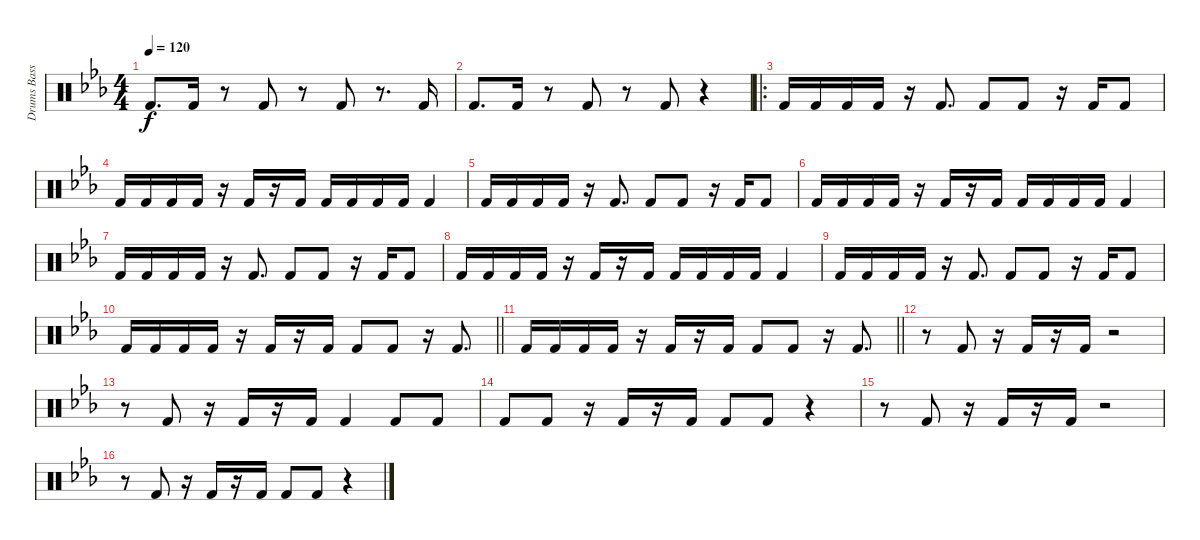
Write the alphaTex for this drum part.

\track ("Drums Bass" "Drums Bass") {instrument percussion}
\staff {score}
\articulation defaults
\ts (4 4)
\tempo 120
\clef neutral
\ks eb "Kick (hit) 2".8{d dy f} "Kick (hit) 2".16
r.8 "Kick (hit) 2".8 r.8 "Kick (hit) 2".8 r.8{d} "Kick (hit) 2".16 |
"Kick (hit) 2".8{d} "Kick (hit) 2".16 r.8 "Kick (hit) 2".8 r.8 "Kick (hit) 2".8 r.4 |
\ro "Kick (hit) 2".16 "Kick (hit) 2".16 "Kick (hit) 2".16 "Kick (hit) 2".16
r.16 "Kick (hit) 2".8{d} "Kick (hit) 2".8 "Kick (hit) 2".8 r.16 "Kick (hit) 2".16 "Kick (hit) 2".8 |
"Kick (hit) 2".16 "Kick (hit) 2".16 "Kick (hit) 2".16 "Kick (hit) 2".16 r.16 "Kick (hit) 2".16 r.16 "Kick (hit) 2".16 "Kick (hit) 2".16 "Kick (hit) 2".16 "Kick (hit) 2".16 "Kick (hit) 2".16 "Kick (hit) 2".4 |
"Kick (hit) 2".16 "Kick (hit) 2".16 "Kick (hit) 2".16 "Kick (hit) 2".16 r.16 "Kick (hit) 2".8{d} "Kick (hit) 2".8 "Kick (hit) 2".8 r.16 "Kick (hit) 2".16 "Kick (hit) 2".8 |
"Kick (hit) 2".16 "Kick (hit) 2".16 "Kick (hit) 2".16 "Kick (hit) 2".16 r.16 "Kick (hit) 2".16 r.16 "Kick (hit) 2".16 "Kick (hit) 2".16 "Kick (hit) 2".16 "Kick (hit) 2".16 "Kick (hit) 2".16 "Kick (hit) 2".4 |
"Kick (hit) 2".16 "Kick (hit) 2".16 "Kick (hit) 2".16 "Kick (hit) 2".16 r.16 "Kick (hit) 2".8{d} "Kick (hit) 2".8 "Kick (hit) 2".8 r.16 "Kick (hit) 2".16 "Kick (hit) 2".8 |
"Kick (hit) 2".16 "Kick (hit) 2".16 "Kick (hit) 2".16 "Kick (hit) 2".16 r.16 "Kick (hit) 2".16 r.16 "Kick (hit) 2".16 "Kick (hit) 2".16 "Kick (hit) 2".16 "Kick (hit) 2".16 "Kick (hit) 2".16 "Kick (hit) 2".4 |
"Kick (hit) 2".16 "Kick (hit) 2".16 "Kick (hit) 2".16 "Kick (hit) 2".16 r.16 "Kick (hit) 2".8{d} "Kick (hit) 2".8 "Kick (hit) 2".8 r.16 "Kick (hit) 2".16 "Kick (hit) 2".8 |
\barLineRight lightlight "Kick (hit) 2".16 "Kick (hit) 2".16 "Kick (hit) 2".16 "Kick (hit) 2".16
r.16 "Kick (hit) 2".16 r.16 "Kick (hit) 2".16 "Kick (hit) 2".8 "Kick (hit) 2".8 r.16 "Kick (hit) 2".8{d} |
\barLineRight lightlight "Kick (hit) 2".16 "Kick (hit) 2".16 "Kick (hit) 2".16 "Kick (hit) 2".16
r.16 "Kick (hit) 2".16 r.16 "Kick (hit) 2".16 "Kick (hit) 2".8 "Kick (hit) 2".8 r.16 "Kick (hit) 2".8{d} |
r.8 "Kick (hit) 2".8 r.16 "Kick (hit) 2".16 r.16 "Kick (hit) 2".16 r.2 |
r.8 "Kick (hit) 2".8 r.16 "Kick (hit) 2".16 r.16 "Kick (hit) 2".16 "Kick (hit) 2".4 "Kick (hit) 2".8 "Kick (hit) 2".8 |
"Kick (hit) 2".8 "Kick (hit) 2".8 r.16 "Kick (hit) 2".16 r.16 "Kick (hit) 2".16 "Kick (hit) 2".8 "Kick (hit) 2".8 r.4 |
r.8 "Kick (hit) 2".8 r.16 "Kick (hit) 2".16 r.16 "Kick (hit) 2".16 r.2 |
r.8 "Kick (hit) 2".8 r.16 "Kick (hit) 2".16 r.16 "Kick (hit) 2".16 "Kick (hit) 2".8 "Kick (hit) 2".8 r.4
